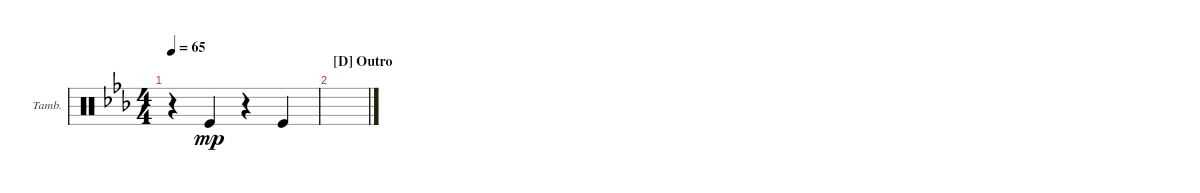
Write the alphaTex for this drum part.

\defaultSystemsLayout 4
\bracketExtendMode groupsimilarinstruments
\firstSystemTrackNameOrientation horizontal
\otherSystemsTrackNameOrientation horizontal
\track ("Tambourine" "Tamb.") {multiBarRest instrument percussion}
\staff {score}
\articulation defaults
\ts (4 4)
\tempo 65
\clef neutral
\scale
0.943253
\ks cminor
r.4{dy mp} "Kick (hit)".4 r.4 "Kick (hit)".4 |
\section ("D" "Outro")
\scale
2.07818 |
\scale
0.943253 |
\scale
0.943253 |
\scale
0.943253 |
\scale
0.943253 |
\scale
0.943253 |
\scale
0.943253 |
\scale
0.943253 |
\scale
0.943253 |
\scale
0.943253 |
\scale
0.943253 |
\scale
0.943253 |
\scale
0.943253 |
\scale
0.943253 |
\scale
0.943253
